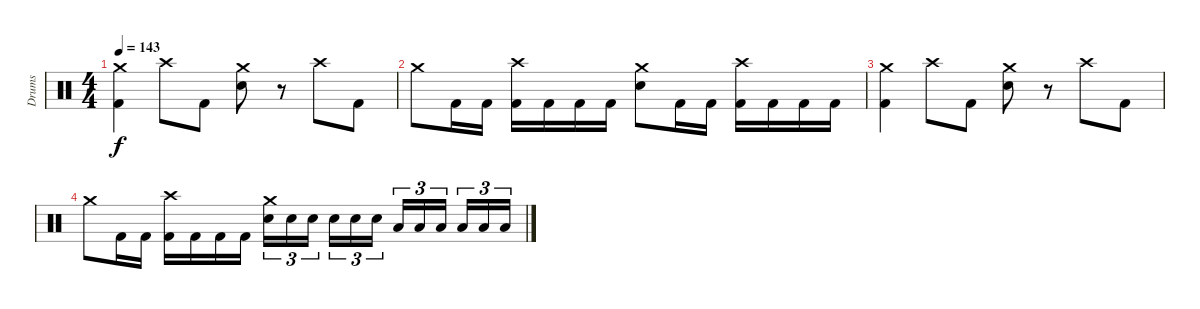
\track ("Drums" "Drums") {instrument percussion}
\staff {score}
\articulation defaults
\ts (4 4)
\tempo 143
\clef neutral
\ks c
("Crash medium (hit)" "Kick (hit) 2").4{dy f volume 0} "Crash high (hit)".8 "Kick (hit) 2".8 ("Crash medium (hit)" "Electric Snare (hit)").8 r.8 "Crash high (hit)".8 "Kick (hit) 2".8 |
"Crash medium (hit)".8 "Kick (hit) 2".16 "Kick (hit) 2".16 ("Crash high (hit)" "Kick (hit) 2").16 "Kick (hit) 2".16 "Kick (hit) 2".16 "Kick (hit) 2".16 ("Crash medium (hit)" "Electric Snare (hit)").8 "Kick (hit) 2".16 "Kick (hit) 2".16 ("Crash high (hit)" "Kick (hit) 2").16 "Kick (hit) 2".16 "Kick (hit) 2".16 "Kick (hit) 2".16 |
("Crash medium (hit)" "Kick (hit) 2").4 "Crash high (hit)".8 "Kick (hit) 2".8 ("Crash medium (hit)" "Electric Snare (hit)").8 r.8 "Crash high (hit)".8 "Kick (hit) 2".8 |
"Crash medium (hit)".8 "Kick (hit) 2".16 "Kick (hit) 2".16 ("Crash high (hit)" "Kick (hit) 2").16 "Kick (hit) 2".16 "Kick (hit) 2".16 "Kick (hit) 2".16 ("Crash medium (hit)" "Electric Snare (hit)").16{tu (3 2)} "Electric Snare (hit)".16{tu (3 2)} "Electric Snare (hit)".16{tu (3 2) beam splitsecondary} "Electric Snare (hit)".16{tu (3 2)} "Electric Snare (hit)".16{tu (3 2)} "Electric Snare (hit)".16{tu (3 2)} "Low Tom (hit)".16{tu (3 2)} "Low Tom (hit)".16{tu (3 2)} "Low Tom (hit)".16{tu (3 2) beam splitsecondary} "Low Tom (hit)".16{tu (3 2)} "Low Tom (hit)".16{tu (3 2)} "Low Tom (hit)".16{tu (3 2)}
